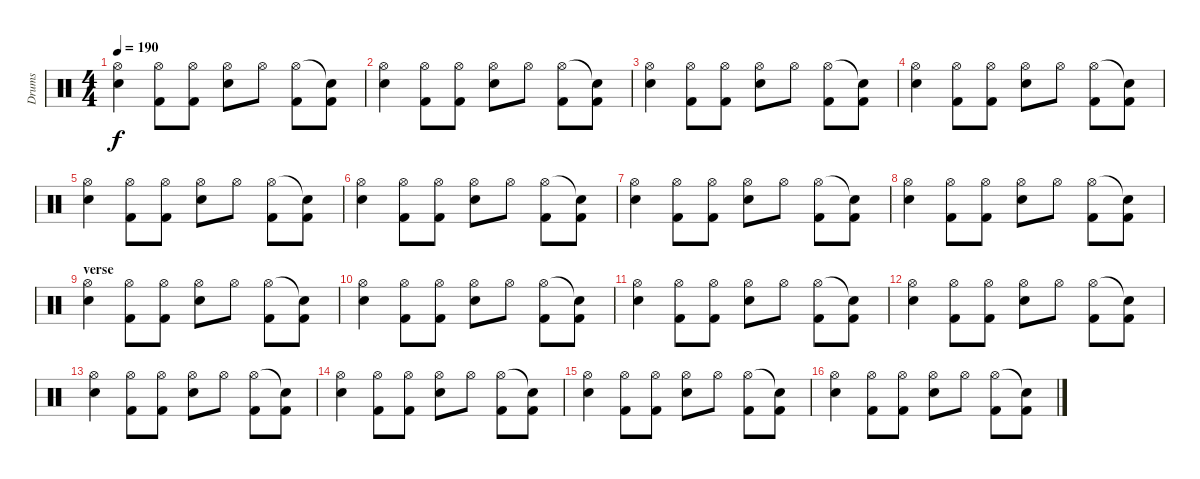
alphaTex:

\track ("Drums" "Drums") {instrument percussion}
\staff {score}
\articulation defaults
\ts (4 4)
\tempo 190
\clef neutral
\ks c
("Electric Snare (hit)" "Hi-Hat (open)").4{dy f} ("Hi-Hat (open)" "Kick (hit) 2").8 ("Hi-Hat (open)" "Kick (hit) 2").8 ("Hi-Hat (open)" "Electric Snare (hit)").8 "Hi-Hat (open)".8 ("Kick (hit) 2" "Hi-Hat (open)").8 ("Kick (hit) 2" "Snare (hit)"{t}).8 |
("Electric Snare (hit)" "Hi-Hat (open)").4 ("Hi-Hat (open)" "Kick (hit) 2").8 ("Hi-Hat (open)" "Kick (hit) 2").8 ("Hi-Hat (open)" "Electric Snare (hit)").8 "Hi-Hat (open)".8 ("Kick (hit) 2" "Hi-Hat (open)").8 ("Kick (hit) 2" "Snare (hit)"{t}).8 |
("Electric Snare (hit)" "Hi-Hat (open)").4 ("Hi-Hat (open)" "Kick (hit) 2").8 ("Hi-Hat (open)" "Kick (hit) 2").8 ("Hi-Hat (open)" "Electric Snare (hit)").8 "Hi-Hat (open)".8 ("Kick (hit) 2" "Hi-Hat (open)").8 ("Kick (hit) 2" "Snare (hit)"{t}).8 |
("Electric Snare (hit)" "Hi-Hat (open)").4 ("Hi-Hat (open)" "Kick (hit) 2").8 ("Hi-Hat (open)" "Kick (hit) 2").8 ("Hi-Hat (open)" "Electric Snare (hit)").8 "Hi-Hat (open)".8 ("Kick (hit) 2" "Hi-Hat (open)").8 ("Kick (hit) 2" "Snare (hit)"{t}).8 |
("Electric Snare (hit)" "Hi-Hat (open)").4 ("Hi-Hat (open)" "Kick (hit) 2").8 ("Hi-Hat (open)" "Kick (hit) 2").8 ("Hi-Hat (open)" "Electric Snare (hit)").8 "Hi-Hat (open)".8 ("Kick (hit) 2" "Hi-Hat (open)").8 ("Kick (hit) 2" "Snare (hit)"{t}).8 |
("Electric Snare (hit)" "Hi-Hat (open)").4 ("Hi-Hat (open)" "Kick (hit) 2").8 ("Hi-Hat (open)" "Kick (hit) 2").8 ("Hi-Hat (open)" "Electric Snare (hit)").8 "Hi-Hat (open)".8 ("Kick (hit) 2" "Hi-Hat (open)").8 ("Kick (hit) 2" "Snare (hit)"{t}).8 |
("Electric Snare (hit)" "Hi-Hat (open)").4 ("Hi-Hat (open)" "Kick (hit) 2").8 ("Hi-Hat (open)" "Kick (hit) 2").8 ("Hi-Hat (open)" "Electric Snare (hit)").8 "Hi-Hat (open)".8 ("Kick (hit) 2" "Hi-Hat (open)").8 ("Kick (hit) 2" "Snare (hit)"{t}).8 |
("Electric Snare (hit)" "Hi-Hat (open)").4 ("Hi-Hat (open)" "Kick (hit) 2").8 ("Hi-Hat (open)" "Kick (hit) 2").8 ("Hi-Hat (open)" "Electric Snare (hit)").8 "Hi-Hat (open)".8 ("Kick (hit) 2" "Hi-Hat (open)").8 ("Kick (hit) 2" "Snare (hit)"{t}).8 |
\section ("" "verse")
("Electric Snare (hit)" "Hi-Hat (open)").4 ("Hi-Hat (open)" "Kick (hit) 2").8 ("Hi-Hat (open)" "Kick (hit) 2").8 ("Hi-Hat (open)" "Electric Snare (hit)").8 "Hi-Hat (open)".8 ("Kick (hit) 2" "Hi-Hat (open)").8 ("Kick (hit) 2" "Snare (hit)"{t}).8 |
("Electric Snare (hit)" "Hi-Hat (open)").4 ("Hi-Hat (open)" "Kick (hit) 2").8 ("Hi-Hat (open)" "Kick (hit) 2").8 ("Hi-Hat (open)" "Electric Snare (hit)").8 "Hi-Hat (open)".8 ("Kick (hit) 2" "Hi-Hat (open)").8 ("Kick (hit) 2" "Snare (hit)"{t}).8 |
("Electric Snare (hit)" "Hi-Hat (open)").4 ("Hi-Hat (open)" "Kick (hit) 2").8 ("Hi-Hat (open)" "Kick (hit) 2").8 ("Hi-Hat (open)" "Electric Snare (hit)").8 "Hi-Hat (open)".8 ("Kick (hit) 2" "Hi-Hat (open)").8 ("Kick (hit) 2" "Snare (hit)"{t}).8 |
("Electric Snare (hit)" "Hi-Hat (open)").4 ("Hi-Hat (open)" "Kick (hit) 2").8 ("Hi-Hat (open)" "Kick (hit) 2").8 ("Hi-Hat (open)" "Electric Snare (hit)").8 "Hi-Hat (open)".8 ("Kick (hit) 2" "Hi-Hat (open)").8 ("Kick (hit) 2" "Snare (hit)"{t}).8 |
("Electric Snare (hit)" "Hi-Hat (open)").4 ("Hi-Hat (open)" "Kick (hit) 2").8 ("Hi-Hat (open)" "Kick (hit) 2").8 ("Hi-Hat (open)" "Electric Snare (hit)").8 "Hi-Hat (open)".8 ("Kick (hit) 2" "Hi-Hat (open)").8 ("Kick (hit) 2" "Snare (hit)"{t}).8 |
("Electric Snare (hit)" "Hi-Hat (open)").4 ("Hi-Hat (open)" "Kick (hit) 2").8 ("Hi-Hat (open)" "Kick (hit) 2").8 ("Hi-Hat (open)" "Electric Snare (hit)").8 "Hi-Hat (open)".8 ("Kick (hit) 2" "Hi-Hat (open)").8 ("Kick (hit) 2" "Snare (hit)"{t}).8 |
("Electric Snare (hit)" "Hi-Hat (open)").4 ("Hi-Hat (open)" "Kick (hit) 2").8 ("Hi-Hat (open)" "Kick (hit) 2").8 ("Hi-Hat (open)" "Electric Snare (hit)").8 "Hi-Hat (open)".8 ("Kick (hit) 2" "Hi-Hat (open)").8 ("Kick (hit) 2" "Snare (hit)"{t}).8 |
("Electric Snare (hit)" "Hi-Hat (open)").4 ("Hi-Hat (open)" "Kick (hit) 2").8 ("Hi-Hat (open)" "Kick (hit) 2").8 ("Hi-Hat (open)" "Electric Snare (hit)").8 "Hi-Hat (open)".8 ("Kick (hit) 2" "Hi-Hat (open)").8 ("Kick (hit) 2" "Snare (hit)"{t}).8
